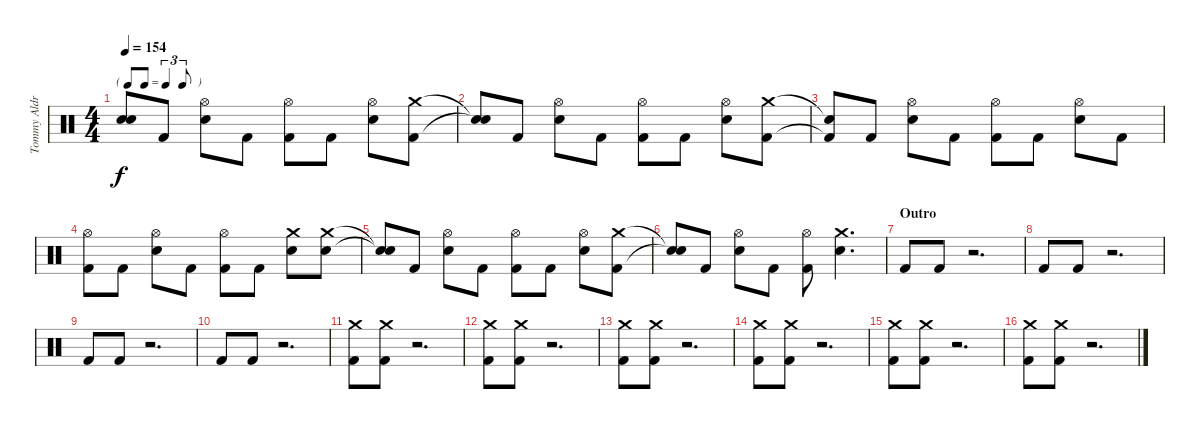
\track ("Tommy Aldridge (Drums)" "Tommy Aldr") {instrument percussion}
\staff {score}
\articulation defaults
\ts (4 4)
\tf triplet8th
\tempo 154
\clef neutral
\ks c
("Snare (hit)"{t} "Snare (hit)"{t}).8{dy f} "Kick (hit) 2".8 ("Hi-Hat (open)" "Electric Snare (hit)").8 "Kick (hit) 2".8 ("Hi-Hat (open)" "Kick (hit) 2").8 "Kick (hit) 2".8 ("Hi-Hat (open)" "Electric Snare (hit)").8 ("Crash medium (hit)" "Kick (hit) 2").8 |
("Snare (hit)"{t} "Snare (hit)"{t}).8 "Kick (hit) 2".8 ("Hi-Hat (open)" "Electric Snare (hit)").8 "Kick (hit) 2".8 ("Hi-Hat (open)" "Kick (hit) 2").8 "Kick (hit) 2".8 ("Hi-Hat (open)" "Electric Snare (hit)").8 ("Crash medium (hit)" "Kick (hit) 2").8 |
("Snare (hit)"{t} "Kick (hit) 2"{t}).8 "Kick (hit) 2".8 ("Hi-Hat (open)" "Electric Snare (hit)").8 "Kick (hit) 2".8 ("Hi-Hat (open)" "Kick (hit) 2").8 "Kick (hit) 2".8 ("Hi-Hat (open)" "Electric Snare (hit)").8 "Kick (hit) 2".8 |
("Hi-Hat (open)" "Kick (hit) 2").8 "Kick (hit) 2".8 ("Hi-Hat (open)" "Electric Snare (hit)").8 "Kick (hit) 2".8 ("Hi-Hat (open)" "Kick (hit) 2").8 "Kick (hit) 2".8 ("Crash medium (hit)" "Electric Snare (hit)").8 ("Crash medium (hit)" "Electric Snare (hit)").8 |
("Snare (hit)"{t} "Snare (hit)"{t}).8 "Kick (hit) 2".8 ("Hi-Hat (open)" "Electric Snare (hit)").8 "Kick (hit) 2".8 ("Hi-Hat (open)" "Kick (hit) 2").8 "Kick (hit) 2".8 ("Hi-Hat (open)" "Electric Snare (hit)").8 ("Crash medium (hit)" "Kick (hit) 2").8 |
("Snare (hit)"{t} "Snare (hit)"{t}).8 "Kick (hit) 2".8 ("Hi-Hat (open)" "Electric Snare (hit)").8 "Kick (hit) 2".8 ("Hi-Hat (open)" "Kick (hit) 2").8 ("Crash medium (hit)" "Electric Snare (hit)").4{d} |
\section ("" "Outro")
"Kick (hit) 2".8 "Kick (hit) 2".8 r.2{d} |
"Kick (hit) 2".8 "Kick (hit) 2".8 r.2{d} |
"Kick (hit) 2".8 "Kick (hit) 2".8 r.2{d} |
"Kick (hit) 2".8 "Kick (hit) 2".8 r.2{d} |
("Crash medium (hit)" "Kick (hit) 2").8 ("Crash medium (hit)" "Kick (hit) 2").8 r.2{d} |
("Crash medium (hit)" "Kick (hit) 2").8 ("Crash medium (hit)" "Kick (hit) 2").8 r.2{d} |
("Crash medium (hit)" "Kick (hit) 2").8 ("Crash medium (hit)" "Kick (hit) 2").8 r.2{d} |
("Crash medium (hit)" "Kick (hit) 2").8 ("Crash medium (hit)" "Kick (hit) 2").8 r.2{d} |
("Crash medium (hit)" "Kick (hit) 2").8 ("Crash medium (hit)" "Kick (hit) 2").8 r.2{d} |
("Crash medium (hit)" "Kick (hit) 2").8 ("Crash medium (hit)" "Kick (hit) 2").8 r.2{d}
